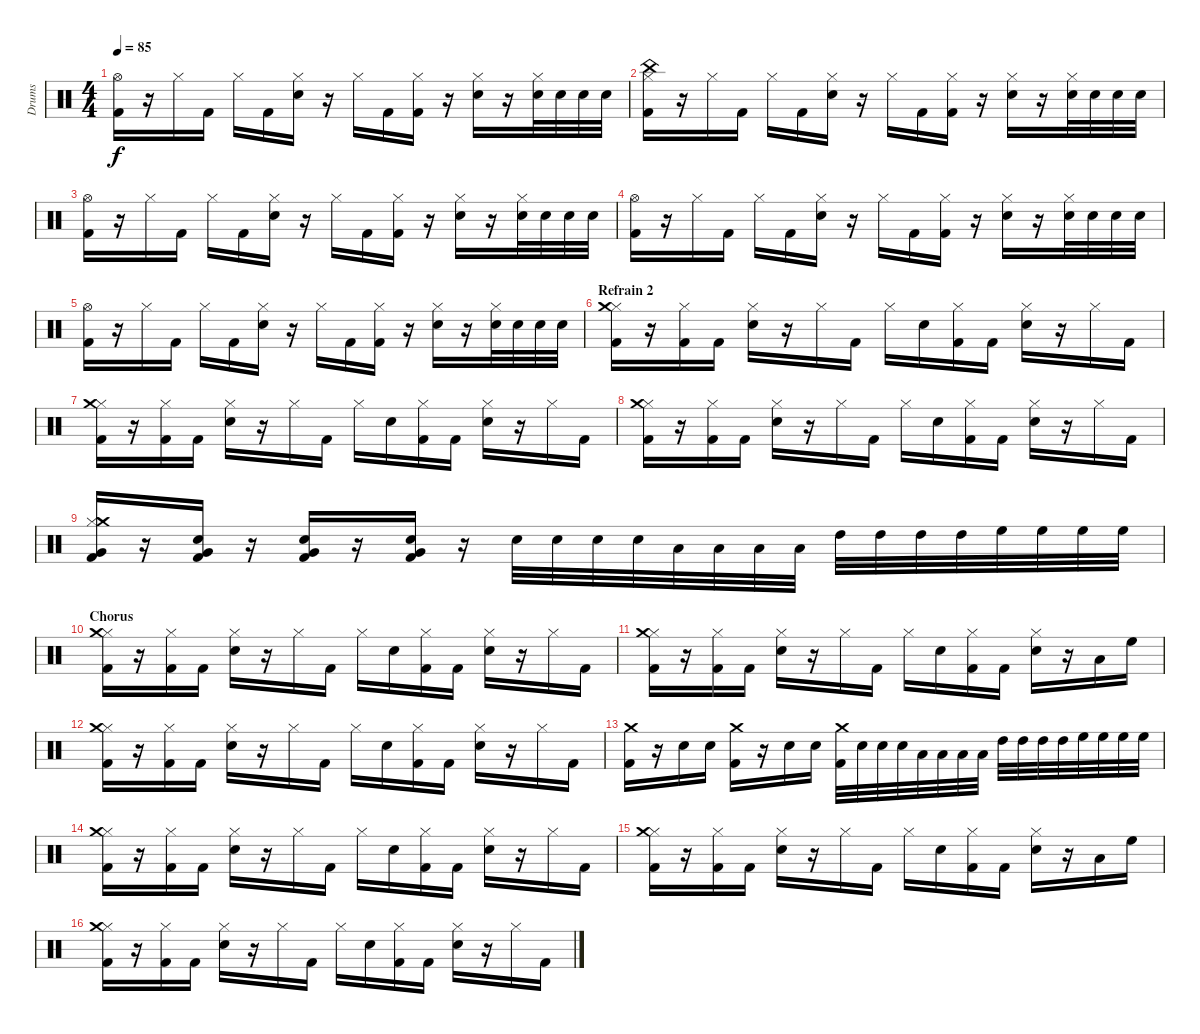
\track ("Drums" "Drums") {instrument percussion}
\staff {score}
\articulation defaults
\ts (4 4)
\tempo 85
\clef neutral
\ks c
("Hi-Hat (open)" "Kick (hit) 2").16{dy f} r.16 "Hi-Hat (closed)".16 "Kick (hit) 2".16 "Hi-Hat (closed)".16 "Kick (hit) 2".16 ("Hi-Hat (closed)" "Snare (hit) 2").16 r.16 "Hi-Hat (closed)".16 "Kick (hit) 2".16 ("Hi-Hat (closed)" "Kick (hit) 2").16 r.16 ("Hi-Hat (closed)" "Snare (hit) 2").16 r.16 ("Hi-Hat (closed)" "Snare (hit) 2").32 "Snare (hit) 2".32 "Snare (hit) 2".32 "Snare (hit) 2".32 |
("Hi-Hat (closed)" "Kick (hit) 2" "China (hit)").16 r.16 "Hi-Hat (closed)".16 "Kick (hit) 2".16 "Hi-Hat (closed)".16 "Kick (hit) 2".16 ("Hi-Hat (closed)" "Snare (hit) 2").16 r.16 "Hi-Hat (closed)".16 "Kick (hit) 2".16 ("Hi-Hat (closed)" "Kick (hit) 2").16 r.16 ("Hi-Hat (closed)" "Snare (hit) 2").16 r.16 ("Hi-Hat (closed)" "Snare (hit) 2").32 "Snare (hit) 2".32 "Snare (hit) 2".32 "Snare (hit) 2".32 |
("Hi-Hat (open)" "Kick (hit) 2").16 r.16 "Hi-Hat (closed)".16 "Kick (hit) 2".16 "Hi-Hat (closed)".16 "Kick (hit) 2".16 ("Hi-Hat (closed)" "Snare (hit) 2").16 r.16 "Hi-Hat (closed)".16 "Kick (hit) 2".16 ("Hi-Hat (closed)" "Kick (hit) 2").16 r.16 ("Hi-Hat (closed)" "Snare (hit) 2").16 r.16 ("Hi-Hat (closed)" "Snare (hit) 2").32 "Snare (hit) 2".32 "Snare (hit) 2".32 "Snare (hit) 2".32 |
("Hi-Hat (open)" "Kick (hit) 2").16 r.16 "Hi-Hat (closed)".16 "Kick (hit) 2".16 "Hi-Hat (closed)".16 "Kick (hit) 2".16 ("Hi-Hat (closed)" "Snare (hit) 2").16 r.16 "Hi-Hat (closed)".16 "Kick (hit) 2".16 ("Hi-Hat (closed)" "Kick (hit) 2").16 r.16 ("Hi-Hat (closed)" "Snare (hit) 2").16 r.16 ("Hi-Hat (closed)" "Snare (hit) 2").32 "Snare (hit) 2".32 "Snare (hit) 2".32 "Snare (hit) 2".32 |
("Hi-Hat (open)" "Kick (hit) 2").16 r.16 "Hi-Hat (closed)".16 "Kick (hit) 2".16 "Hi-Hat (closed)".16 "Kick (hit) 2".16 ("Hi-Hat (closed)" "Snare (hit) 2").16 r.16 "Hi-Hat (closed)".16 "Kick (hit) 2".16 ("Hi-Hat (closed)" "Kick (hit) 2").16 r.16 ("Hi-Hat (closed)" "Snare (hit) 2").16 r.16 ("Hi-Hat (closed)" "Snare (hit) 2").32 "Snare (hit) 2".32 "Snare (hit) 2".32 "Snare (hit) 2".32 |
\section ("" "Refrain 2")
("Hi-Hat (closed)" "Kick (hit) 2" "Crash medium (hit)").16 r.16 ("Hi-Hat (closed)" "Kick (hit) 2").16 "Kick (hit) 2".16 ("Hi-Hat (closed)" "Snare (hit) 2").16 r.16 "Hi-Hat (closed)".16 "Kick (hit) 2".16 "Hi-Hat (closed)".16 "Snare (hit) 2".16 ("Hi-Hat (closed)" "Kick (hit) 2").16 "Kick (hit) 2".16 ("Hi-Hat (closed)" "Snare (hit) 2").16 r.16 "Hi-Hat (closed)".16 "Kick (hit) 2".16 |
("Hi-Hat (closed)" "Kick (hit) 2" "Crash medium (hit)").16 r.16 ("Hi-Hat (closed)" "Kick (hit) 2").16 "Kick (hit) 2".16 ("Hi-Hat (closed)" "Snare (hit) 2").16 r.16 "Hi-Hat (closed)".16 "Kick (hit) 2".16 "Hi-Hat (closed)".16 "Snare (hit) 2".16 ("Hi-Hat (closed)" "Kick (hit) 2").16 "Kick (hit) 2".16 ("Hi-Hat (closed)" "Snare (hit) 2").16 r.16 "Hi-Hat (closed)".16 "Kick (hit) 2".16 |
("Hi-Hat (closed)" "Kick (hit) 2" "Crash medium (hit)").16 r.16 ("Hi-Hat (closed)" "Kick (hit) 2").16 "Kick (hit) 2".16 ("Hi-Hat (closed)" "Snare (hit) 2").16 r.16 "Hi-Hat (closed)".16 "Kick (hit) 2".16 "Hi-Hat (closed)".16 "Snare (hit) 2".16 ("Hi-Hat (closed)" "Kick (hit) 2").16 "Kick (hit) 2".16 ("Hi-Hat (closed)" "Snare (hit) 2").16 r.16 "Hi-Hat (closed)".16 "Kick (hit) 2".16 |
("Hi-Hat (closed)" "Kick (hit) 2" "Crash medium (hit)" "Very Low Tom (hit)").16 r.16 ("Kick (hit) 2" "Snare (hit) 2" "Very Low Tom (hit)").16 r.16 ("Kick (hit) 2" "Snare (hit) 2" "Very Low Tom (hit)").16 r.16 ("Kick (hit) 2" "Snare (hit) 2" "Very Low Tom (hit)").16 r.16 "Snare (hit) 2".32 "Snare (hit) 2".32 "Snare (hit) 2".32 "Snare (hit) 2".32 "Low Tom (hit)".32 "Low Tom (hit)".32 "Low Tom (hit)".32 "Low Tom (hit)".32 "High Tom (hit)".32 "High Tom (hit)".32 "High Tom (hit)".32 "High Tom (hit)".32 "High Floor Tom (hit)".32 "High Floor Tom (hit)".32 "High Floor Tom (hit)".32 "High Floor Tom (hit)".32 |
\section ("" "Chorus")
("Hi-Hat (closed)" "Kick (hit) 2" "Crash medium (hit)").16 r.16 ("Hi-Hat (closed)" "Kick (hit) 2").16 "Kick (hit) 2".16 ("Hi-Hat (closed)" "Snare (hit) 2").16 r.16 "Hi-Hat (closed)".16 "Kick (hit) 2".16 "Hi-Hat (closed)".16 "Snare (hit) 2".16 ("Hi-Hat (closed)" "Kick (hit) 2").16 "Kick (hit) 2".16 ("Hi-Hat (closed)" "Snare (hit) 2").16 r.16 "Hi-Hat (closed)".16 "Kick (hit) 2".16 |
("Hi-Hat (closed)" "Kick (hit) 2" "Crash medium (hit)").16 r.16 ("Hi-Hat (closed)" "Kick (hit) 2").16 "Kick (hit) 2".16 ("Hi-Hat (closed)" "Snare (hit) 2").16 r.16 "Hi-Hat (closed)".16 "Kick (hit) 2".16 "Hi-Hat (closed)".16 "Snare (hit) 2".16 ("Hi-Hat (closed)" "Kick (hit) 2").16 "Kick (hit) 2".16 ("Hi-Hat (closed)" "Snare (hit) 2").16 r.16 "Low Tom (hit)".16 "High Floor Tom (hit)".16 |
("Hi-Hat (closed)" "Kick (hit) 2" "Crash medium (hit)").16 r.16 ("Hi-Hat (closed)" "Kick (hit) 2").16 "Kick (hit) 2".16 ("Hi-Hat (closed)" "Snare (hit) 2").16 r.16 "Hi-Hat (closed)".16 "Kick (hit) 2".16 "Hi-Hat (closed)".16 "Snare (hit) 2".16 ("Hi-Hat (closed)" "Kick (hit) 2").16 "Kick (hit) 2".16 ("Hi-Hat (closed)" "Snare (hit) 2").16 r.16 "Hi-Hat (closed)".16 "Kick (hit) 2".16 |
("Kick (hit) 2" "Crash medium (hit)").16 r.16 "Snare (hit) 2".16 "Snare (hit) 2".16 ("Kick (hit) 2" "Crash medium (hit)").16 r.16 "Snare (hit) 2".16 "Snare (hit) 2".16 ("Kick (hit) 2" "Crash medium (hit)").32 "Snare (hit) 2".32 "Snare (hit) 2".32 "Snare (hit) 2".32 "Low Tom (hit)".32 "Low Tom (hit)".32 "Low Tom (hit)".32 "Low Tom (hit)".32 "High Tom (hit)".32 "High Tom (hit)".32 "High Tom (hit)".32 "High Tom (hit)".32 "High Floor Tom (hit)".32 "High Floor Tom (hit)".32 "High Floor Tom (hit)".32 "High Floor Tom (hit)".32 |
("Hi-Hat (closed)" "Kick (hit) 2" "Crash medium (hit)").16 r.16 ("Hi-Hat (closed)" "Kick (hit) 2").16 "Kick (hit) 2".16 ("Hi-Hat (closed)" "Snare (hit) 2").16 r.16 "Hi-Hat (closed)".16 "Kick (hit) 2".16 "Hi-Hat (closed)".16 "Snare (hit) 2".16 ("Hi-Hat (closed)" "Kick (hit) 2").16 "Kick (hit) 2".16 ("Hi-Hat (closed)" "Snare (hit) 2").16 r.16 "Hi-Hat (closed)".16 "Kick (hit) 2".16 |
("Hi-Hat (closed)" "Kick (hit) 2" "Crash medium (hit)").16 r.16 ("Hi-Hat (closed)" "Kick (hit) 2").16 "Kick (hit) 2".16 ("Hi-Hat (closed)" "Snare (hit) 2").16 r.16 "Hi-Hat (closed)".16 "Kick (hit) 2".16 "Hi-Hat (closed)".16 "Snare (hit) 2".16 ("Hi-Hat (closed)" "Kick (hit) 2").16 "Kick (hit) 2".16 ("Hi-Hat (closed)" "Snare (hit) 2").16 r.16 "Low Tom (hit)".16 "High Floor Tom (hit)".16 |
("Hi-Hat (closed)" "Kick (hit) 2" "Crash medium (hit)").16 r.16 ("Hi-Hat (closed)" "Kick (hit) 2").16 "Kick (hit) 2".16 ("Hi-Hat (closed)" "Snare (hit) 2").16 r.16 "Hi-Hat (closed)".16 "Kick (hit) 2".16 "Hi-Hat (closed)".16 "Snare (hit) 2".16 ("Hi-Hat (closed)" "Kick (hit) 2").16 "Kick (hit) 2".16 ("Hi-Hat (closed)" "Snare (hit) 2").16 r.16 "Hi-Hat (closed)".16 "Kick (hit) 2".16
